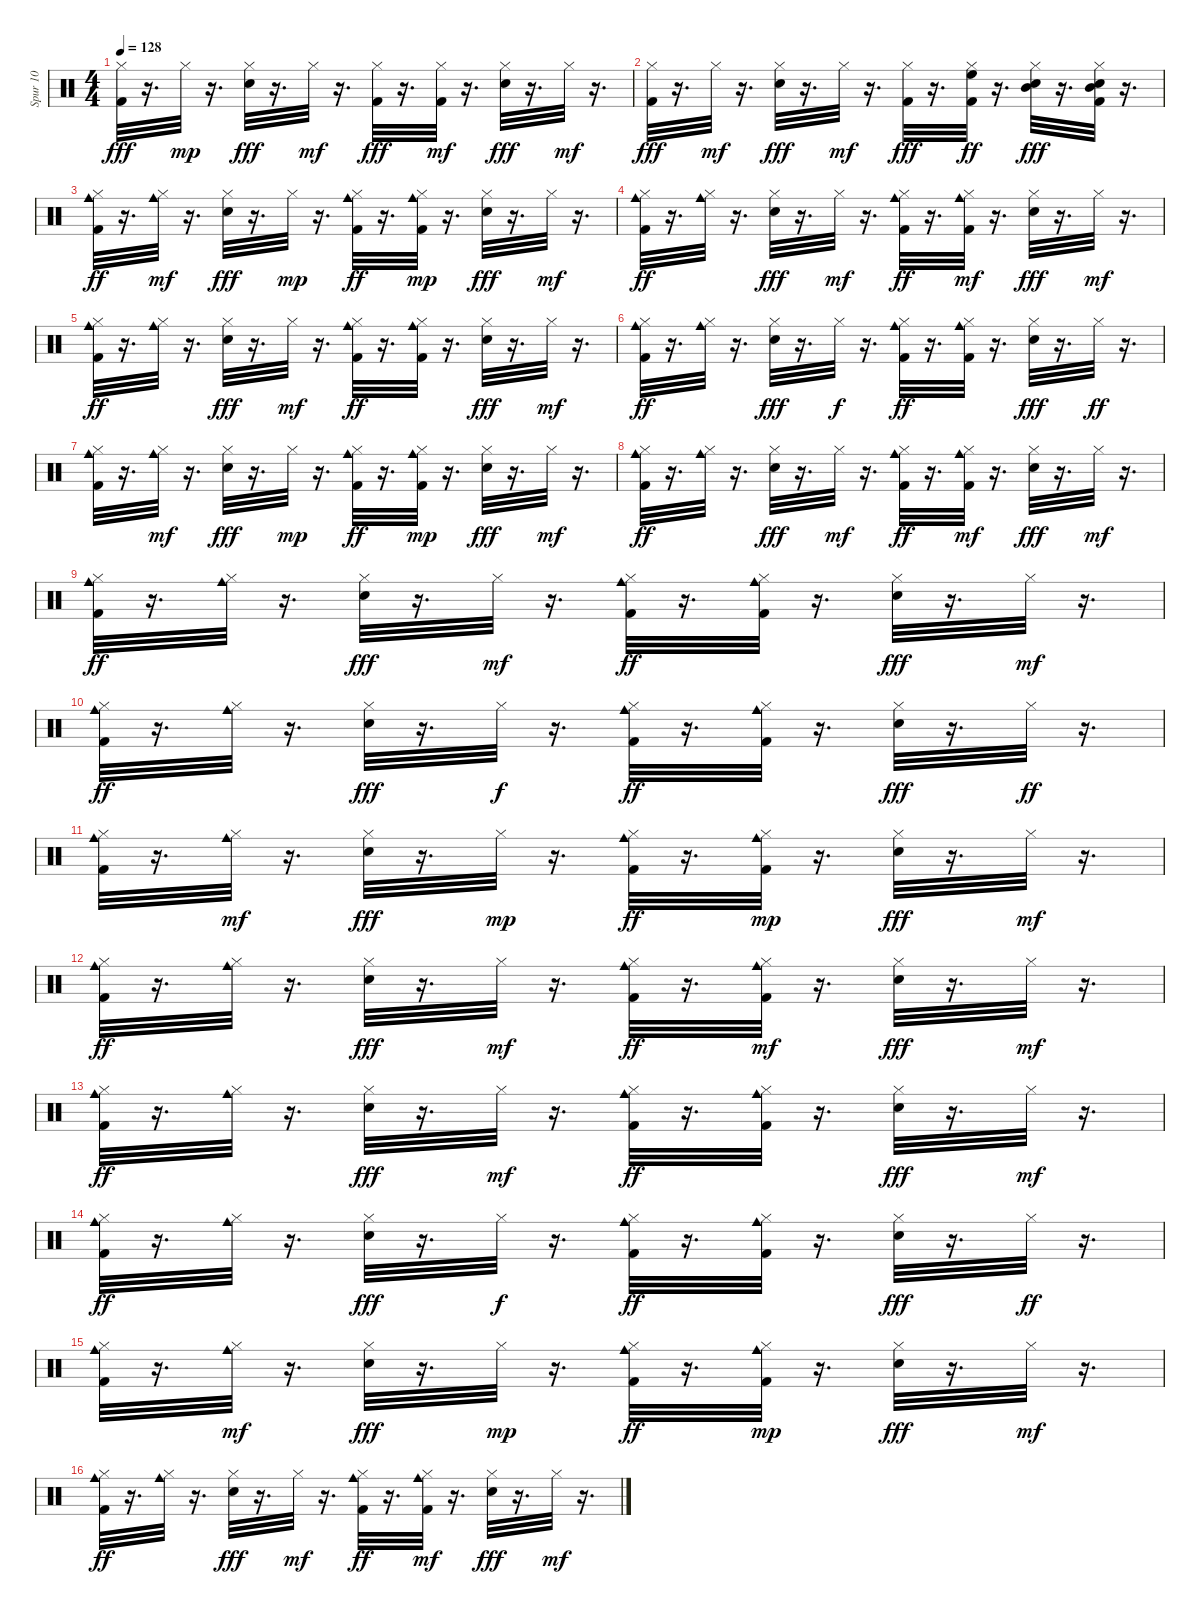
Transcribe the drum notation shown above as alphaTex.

\track ("Spur 10" "Spur 10") {instrument percussion}
\staff {score}
\articulation defaults
\ts (4 4)
\tempo 128
\clef neutral
\ks c
("Kick (hit) 2" "Hi-Hat (closed)").32{dy fff} r.16{d} "Hi-Hat (closed)".32{dy mp} r.16{d} ("Electric Snare (hit)" "Hi-Hat (closed)").32{dy fff} r.16{d} "Hi-Hat (closed)".32{dy mf} r.16{d} ("Kick (hit) 2" "Hi-Hat (closed)").32{dy fff} r.16{d} ("Kick (hit) 2" "Hi-Hat (closed)").32{dy mf} r.16{d} ("Electric Snare (hit)" "Hi-Hat (closed)").32{dy fff} r.16{d} "Hi-Hat (closed)".32{dy mf} r.16{d} |
("Kick (hit) 2" "Hi-Hat (closed)").32{dy fff} r.16{d} "Hi-Hat (closed)".32{dy mf} r.16{d} ("Electric Snare (hit)" "Hi-Hat (closed)").32{dy fff} r.16{d} "Hi-Hat (closed)".32{dy mf} r.16{d} ("Kick (hit) 2" "Hi-Hat (closed)").32{dy fff} r.16{d} ("Kick (hit) 2" "Hi-Hat (closed)" "High Floor Tom (hit)").32{dy ff} r.16{d} ("Electric Snare (hit)" "Hi-Hat (closed)" "Mid Tom (hit)").32{dy fff} r.16{d} ("Kick (hit) 2" "Hi-Hat (closed)" "Electric Snare (hit)" "Mid Tom (hit)").32 r.16{d} |
("Kick (hit) 2" "Hi-Hat (closed)" "Cowbell medium (hit)").32{dy ff} r.16{d} ("Hi-Hat (closed)" "Cowbell medium (hit)").32{dy mf} r.16{d} ("Electric Snare (hit)" "Hi-Hat (closed)").32{dy fff} r.16{d} "Hi-Hat (closed)".32{dy mp} r.16{d} ("Kick (hit) 2" "Hi-Hat (closed)" "Cowbell medium (hit)").32{dy ff} r.16{d} ("Kick (hit) 2" "Hi-Hat (closed)" "Cowbell medium (hit)").32{dy mp} r.16{d} ("Electric Snare (hit)" "Hi-Hat (closed)").32{dy fff} r.16{d} "Hi-Hat (closed)".32{dy mf} r.16{d} |
("Kick (hit) 2" "Hi-Hat (closed)" "Cowbell medium (hit)").32{dy ff} r.16{d} ("Hi-Hat (closed)" "Cowbell medium (hit)").32 r.16{d} ("Electric Snare (hit)" "Hi-Hat (closed)").32{dy fff} r.16{d} "Hi-Hat (closed)".32{dy mf} r.16{d} ("Kick (hit) 2" "Hi-Hat (closed)" "Cowbell medium (hit)").32{dy ff} r.16{d} ("Kick (hit) 2" "Hi-Hat (closed)" "Cowbell medium (hit)").32{dy mf} r.16{d} ("Electric Snare (hit)" "Hi-Hat (closed)").32{dy fff} r.16{d} "Hi-Hat (closed)".32{dy mf} r.16{d} |
("Kick (hit) 2" "Hi-Hat (closed)" "Cowbell medium (hit)").32{dy ff} r.16{d} ("Hi-Hat (closed)" "Cowbell medium (hit)").32 r.16{d} ("Electric Snare (hit)" "Hi-Hat (closed)").32{dy fff} r.16{d} "Hi-Hat (closed)".32{dy mf} r.16{d} ("Kick (hit) 2" "Hi-Hat (closed)" "Cowbell medium (hit)").32{dy ff} r.16{d} ("Kick (hit) 2" "Hi-Hat (closed)" "Cowbell medium (hit)").32 r.16{d} ("Electric Snare (hit)" "Hi-Hat (closed)").32{dy fff} r.16{d} "Hi-Hat (closed)".32{dy mf} r.16{d} |
("Kick (hit) 2" "Hi-Hat (closed)" "Cowbell medium (hit)").32{dy ff} r.16{d} ("Hi-Hat (closed)" "Cowbell medium (hit)").32 r.16{d} ("Electric Snare (hit)" "Hi-Hat (closed)").32{dy fff} r.16{d} "Hi-Hat (closed)".32{dy f} r.16{d} ("Kick (hit) 2" "Hi-Hat (closed)" "Cowbell medium (hit)").32{dy ff} r.16{d} ("Kick (hit) 2" "Hi-Hat (closed)" "Cowbell medium (hit)").32 r.16{d} ("Electric Snare (hit)" "Hi-Hat (closed)").32{dy fff} r.16{d} "Hi-Hat (closed)".32{dy ff} r.16{d} |
("Kick (hit) 2" "Hi-Hat (closed)" "Cowbell medium (hit)").32 r.16{d} ("Hi-Hat (closed)" "Cowbell medium (hit)").32{dy mf} r.16{d} ("Electric Snare (hit)" "Hi-Hat (closed)").32{dy fff} r.16{d} "Hi-Hat (closed)".32{dy mp} r.16{d} ("Kick (hit) 2" "Hi-Hat (closed)" "Cowbell medium (hit)").32{dy ff} r.16{d} ("Kick (hit) 2" "Hi-Hat (closed)" "Cowbell medium (hit)").32{dy mp} r.16{d} ("Electric Snare (hit)" "Hi-Hat (closed)").32{dy fff} r.16{d} "Hi-Hat (closed)".32{dy mf} r.16{d} |
("Kick (hit) 2" "Hi-Hat (closed)" "Cowbell medium (hit)").32{dy ff} r.16{d} ("Hi-Hat (closed)" "Cowbell medium (hit)").32 r.16{d} ("Electric Snare (hit)" "Hi-Hat (closed)").32{dy fff} r.16{d} "Hi-Hat (closed)".32{dy mf} r.16{d} ("Kick (hit) 2" "Hi-Hat (closed)" "Cowbell medium (hit)").32{dy ff} r.16{d} ("Kick (hit) 2" "Hi-Hat (closed)" "Cowbell medium (hit)").32{dy mf} r.16{d} ("Electric Snare (hit)" "Hi-Hat (closed)").32{dy fff} r.16{d} "Hi-Hat (closed)".32{dy mf} r.16{d} |
("Kick (hit) 2" "Hi-Hat (closed)" "Cowbell medium (hit)").32{dy ff} r.16{d} ("Hi-Hat (closed)" "Cowbell medium (hit)").32 r.16{d} ("Electric Snare (hit)" "Hi-Hat (closed)").32{dy fff} r.16{d} "Hi-Hat (closed)".32{dy mf} r.16{d} ("Kick (hit) 2" "Hi-Hat (closed)" "Cowbell medium (hit)").32{dy ff} r.16{d} ("Kick (hit) 2" "Hi-Hat (closed)" "Cowbell medium (hit)").32 r.16{d} ("Electric Snare (hit)" "Hi-Hat (closed)").32{dy fff} r.16{d} "Hi-Hat (closed)".32{dy mf} r.16{d} |
("Kick (hit) 2" "Hi-Hat (closed)" "Cowbell medium (hit)").32{dy ff} r.16{d} ("Hi-Hat (closed)" "Cowbell medium (hit)").32 r.16{d} ("Electric Snare (hit)" "Hi-Hat (closed)").32{dy fff} r.16{d} "Hi-Hat (closed)".32{dy f} r.16{d} ("Kick (hit) 2" "Hi-Hat (closed)" "Cowbell medium (hit)").32{dy ff} r.16{d} ("Kick (hit) 2" "Hi-Hat (closed)" "Cowbell medium (hit)").32 r.16{d} ("Electric Snare (hit)" "Hi-Hat (closed)").32{dy fff} r.16{d} "Hi-Hat (closed)".32{dy ff} r.16{d} |
("Kick (hit) 2" "Hi-Hat (closed)" "Cowbell medium (hit)").32 r.16{d} ("Hi-Hat (closed)" "Cowbell medium (hit)").32{dy mf} r.16{d} ("Electric Snare (hit)" "Hi-Hat (closed)").32{dy fff} r.16{d} "Hi-Hat (closed)".32{dy mp} r.16{d} ("Kick (hit) 2" "Hi-Hat (closed)" "Cowbell medium (hit)").32{dy ff} r.16{d} ("Kick (hit) 2" "Hi-Hat (closed)" "Cowbell medium (hit)").32{dy mp} r.16{d} ("Electric Snare (hit)" "Hi-Hat (closed)").32{dy fff} r.16{d} "Hi-Hat (closed)".32{dy mf} r.16{d} |
("Kick (hit) 2" "Hi-Hat (closed)" "Cowbell medium (hit)").32{dy ff} r.16{d} ("Hi-Hat (closed)" "Cowbell medium (hit)").32 r.16{d} ("Electric Snare (hit)" "Hi-Hat (closed)").32{dy fff} r.16{d} "Hi-Hat (closed)".32{dy mf} r.16{d} ("Kick (hit) 2" "Hi-Hat (closed)" "Cowbell medium (hit)").32{dy ff} r.16{d} ("Kick (hit) 2" "Hi-Hat (closed)" "Cowbell medium (hit)").32{dy mf} r.16{d} ("Electric Snare (hit)" "Hi-Hat (closed)").32{dy fff} r.16{d} "Hi-Hat (closed)".32{dy mf} r.16{d} |
("Kick (hit) 2" "Hi-Hat (closed)" "Cowbell medium (hit)").32{dy ff} r.16{d} ("Hi-Hat (closed)" "Cowbell medium (hit)").32 r.16{d} ("Electric Snare (hit)" "Hi-Hat (closed)").32{dy fff} r.16{d} "Hi-Hat (closed)".32{dy mf} r.16{d} ("Kick (hit) 2" "Hi-Hat (closed)" "Cowbell medium (hit)").32{dy ff} r.16{d} ("Kick (hit) 2" "Hi-Hat (closed)" "Cowbell medium (hit)").32 r.16{d} ("Electric Snare (hit)" "Hi-Hat (closed)").32{dy fff} r.16{d} "Hi-Hat (closed)".32{dy mf} r.16{d} |
("Kick (hit) 2" "Hi-Hat (closed)" "Cowbell medium (hit)").32{dy ff} r.16{d} ("Hi-Hat (closed)" "Cowbell medium (hit)").32 r.16{d} ("Electric Snare (hit)" "Hi-Hat (closed)").32{dy fff} r.16{d} "Hi-Hat (closed)".32{dy f} r.16{d} ("Kick (hit) 2" "Hi-Hat (closed)" "Cowbell medium (hit)").32{dy ff} r.16{d} ("Kick (hit) 2" "Hi-Hat (closed)" "Cowbell medium (hit)").32 r.16{d} ("Electric Snare (hit)" "Hi-Hat (closed)").32{dy fff} r.16{d} "Hi-Hat (closed)".32{dy ff} r.16{d} |
("Kick (hit) 2" "Hi-Hat (closed)" "Cowbell medium (hit)").32 r.16{d} ("Hi-Hat (closed)" "Cowbell medium (hit)").32{dy mf} r.16{d} ("Electric Snare (hit)" "Hi-Hat (closed)").32{dy fff} r.16{d} "Hi-Hat (closed)".32{dy mp} r.16{d} ("Kick (hit) 2" "Hi-Hat (closed)" "Cowbell medium (hit)").32{dy ff} r.16{d} ("Kick (hit) 2" "Hi-Hat (closed)" "Cowbell medium (hit)").32{dy mp} r.16{d} ("Electric Snare (hit)" "Hi-Hat (closed)").32{dy fff} r.16{d} "Hi-Hat (closed)".32{dy mf} r.16{d} |
("Kick (hit) 2" "Hi-Hat (closed)" "Cowbell medium (hit)").32{dy ff} r.16{d} ("Hi-Hat (closed)" "Cowbell medium (hit)").32 r.16{d} ("Electric Snare (hit)" "Hi-Hat (closed)").32{dy fff} r.16{d} "Hi-Hat (closed)".32{dy mf} r.16{d} ("Kick (hit) 2" "Hi-Hat (closed)" "Cowbell medium (hit)").32{dy ff} r.16{d} ("Kick (hit) 2" "Hi-Hat (closed)" "Cowbell medium (hit)").32{dy mf} r.16{d} ("Electric Snare (hit)" "Hi-Hat (closed)").32{dy fff} r.16{d} "Hi-Hat (closed)".32{dy mf} r.16{d}
